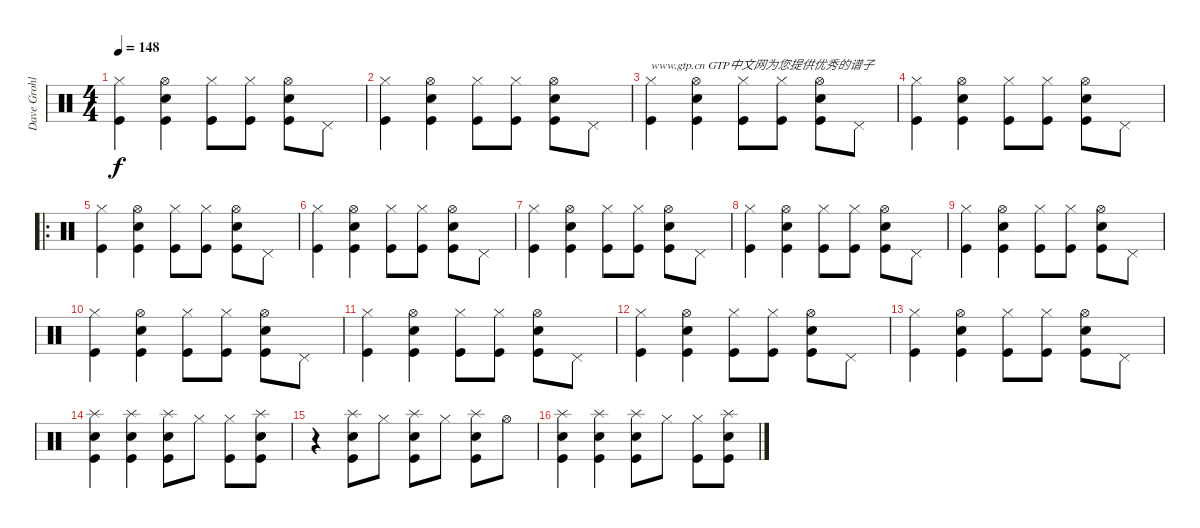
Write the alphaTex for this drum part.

\track ("Dave Grohl" "Dave Grohl") {instrument percussion}
\staff {score}
\articulation defaults
\ts (4 4)
\tempo 148
\clef neutral
\ks c
("Hi-Hat (closed)" "Kick (hit)").4{dy f} ("Snare (hit) 2" "Hi-Hat (open)" "Kick (hit)").4 ("Hi-Hat (closed)" "Kick (hit)").8 ("Hi-Hat (closed)" "Kick (hit)").8 ("Snare (hit) 2" "Hi-Hat (open)" "Kick (hit)").8 "Pedal Hi-Hat (hit)".8 |
("Hi-Hat (closed)" "Kick (hit)").4 ("Snare (hit) 2" "Hi-Hat (open)" "Kick (hit)").4 ("Hi-Hat (closed)" "Kick (hit)").8 ("Hi-Hat (closed)" "Kick (hit)").8 ("Snare (hit) 2" "Hi-Hat (open)" "Kick (hit)").8 "Pedal Hi-Hat (hit)".8 |
("Hi-Hat (closed)" "Kick (hit)").4{txt "www.gtp.cn GTP中文网为您提供优秀的谱子"} ("Snare (hit) 2" "Hi-Hat (open)" "Kick (hit)").4 ("Hi-Hat (closed)" "Kick (hit)").8 ("Hi-Hat (closed)" "Kick (hit)").8 ("Snare (hit) 2" "Hi-Hat (open)" "Kick (hit)").8 "Pedal Hi-Hat (hit)".8 |
("Hi-Hat (closed)" "Kick (hit)").4 ("Snare (hit) 2" "Hi-Hat (open)" "Kick (hit)").4 ("Hi-Hat (closed)" "Kick (hit)").8 ("Hi-Hat (closed)" "Kick (hit)").8 ("Snare (hit) 2" "Hi-Hat (open)" "Kick (hit)").8 "Pedal Hi-Hat (hit)".8 |
\ro
("Hi-Hat (closed)" "Kick (hit)").4 ("Snare (hit) 2" "Hi-Hat (open)" "Kick (hit)").4 ("Hi-Hat (closed)" "Kick (hit)").8 ("Hi-Hat (closed)" "Kick (hit)").8 ("Snare (hit) 2" "Hi-Hat (open)" "Kick (hit)").8 "Pedal Hi-Hat (hit)".8 |
("Hi-Hat (closed)" "Kick (hit)").4 ("Snare (hit) 2" "Hi-Hat (open)" "Kick (hit)").4 ("Hi-Hat (closed)" "Kick (hit)").8 ("Hi-Hat (closed)" "Kick (hit)").8 ("Snare (hit) 2" "Hi-Hat (open)" "Kick (hit)").8 "Pedal Hi-Hat (hit)".8 |
("Hi-Hat (closed)" "Kick (hit)").4 ("Snare (hit) 2" "Hi-Hat (open)" "Kick (hit)").4 ("Hi-Hat (closed)" "Kick (hit)").8 ("Hi-Hat (closed)" "Kick (hit)").8 ("Snare (hit) 2" "Hi-Hat (open)" "Kick (hit)").8 "Pedal Hi-Hat (hit)".8 |
("Hi-Hat (closed)" "Kick (hit)").4 ("Snare (hit) 2" "Hi-Hat (open)" "Kick (hit)").4 ("Hi-Hat (closed)" "Kick (hit)").8 ("Hi-Hat (closed)" "Kick (hit)").8 ("Snare (hit) 2" "Hi-Hat (open)" "Kick (hit)").8 "Pedal Hi-Hat (hit)".8 |
("Hi-Hat (closed)" "Kick (hit)").4 ("Snare (hit) 2" "Hi-Hat (open)" "Kick (hit)").4 ("Hi-Hat (closed)" "Kick (hit)").8 ("Hi-Hat (closed)" "Kick (hit)").8 ("Snare (hit) 2" "Hi-Hat (open)" "Kick (hit)").8 "Pedal Hi-Hat (hit)".8 |
("Hi-Hat (closed)" "Kick (hit)").4 ("Snare (hit) 2" "Hi-Hat (open)" "Kick (hit)").4 ("Hi-Hat (closed)" "Kick (hit)").8 ("Hi-Hat (closed)" "Kick (hit)").8 ("Snare (hit) 2" "Hi-Hat (open)" "Kick (hit)").8 "Pedal Hi-Hat (hit)".8 |
("Hi-Hat (closed)" "Kick (hit)").4 ("Snare (hit) 2" "Hi-Hat (open)" "Kick (hit)").4 ("Hi-Hat (closed)" "Kick (hit)").8 ("Hi-Hat (closed)" "Kick (hit)").8 ("Snare (hit) 2" "Hi-Hat (open)" "Kick (hit)").8 "Pedal Hi-Hat (hit)".8 |
("Hi-Hat (closed)" "Kick (hit)").4 ("Snare (hit) 2" "Hi-Hat (open)" "Kick (hit)").4 ("Hi-Hat (closed)" "Kick (hit)").8 ("Hi-Hat (closed)" "Kick (hit)").8 ("Snare (hit) 2" "Hi-Hat (open)" "Kick (hit)").8 "Pedal Hi-Hat (hit)".8 |
("Hi-Hat (closed)" "Kick (hit)").4 ("Snare (hit) 2" "Hi-Hat (open)" "Kick (hit)").4 ("Hi-Hat (closed)" "Kick (hit)").8 ("Hi-Hat (closed)" "Kick (hit)").8 ("Snare (hit) 2" "Hi-Hat (open)" "Kick (hit)").8 "Pedal Hi-Hat (hit)".8 |
("Splash (hit)" "Snare (hit) 2" "Kick (hit)").4 ("Splash (hit)" "Snare (hit) 2" "Kick (hit)").4 ("Splash (hit)" "Snare (hit) 2" "Kick (hit)").8 "Hi-Hat (closed)".8 ("Hi-Hat (closed)" "Kick (hit)").8 ("Splash (hit)" "Snare (hit) 2" "Kick (hit)").8 |
r.4 ("Splash (hit)" "Snare (hit) 2" "Kick (hit)").8 "Hi-Hat (closed)".8 ("Splash (hit)" "Snare (hit) 2" "Kick (hit)").8 "Hi-Hat (closed)".8 ("Splash (hit)" "Snare (hit) 2" "Kick (hit)").8 "Hi-Hat (open)".8 |
("Splash (hit)" "Snare (hit) 2" "Kick (hit)").4 ("Splash (hit)" "Snare (hit) 2" "Kick (hit)").4 ("Splash (hit)" "Snare (hit) 2" "Kick (hit)").8 "Hi-Hat (closed)".8 ("Hi-Hat (closed)" "Kick (hit)").8 ("Splash (hit)" "Snare (hit) 2" "Kick (hit)").8
